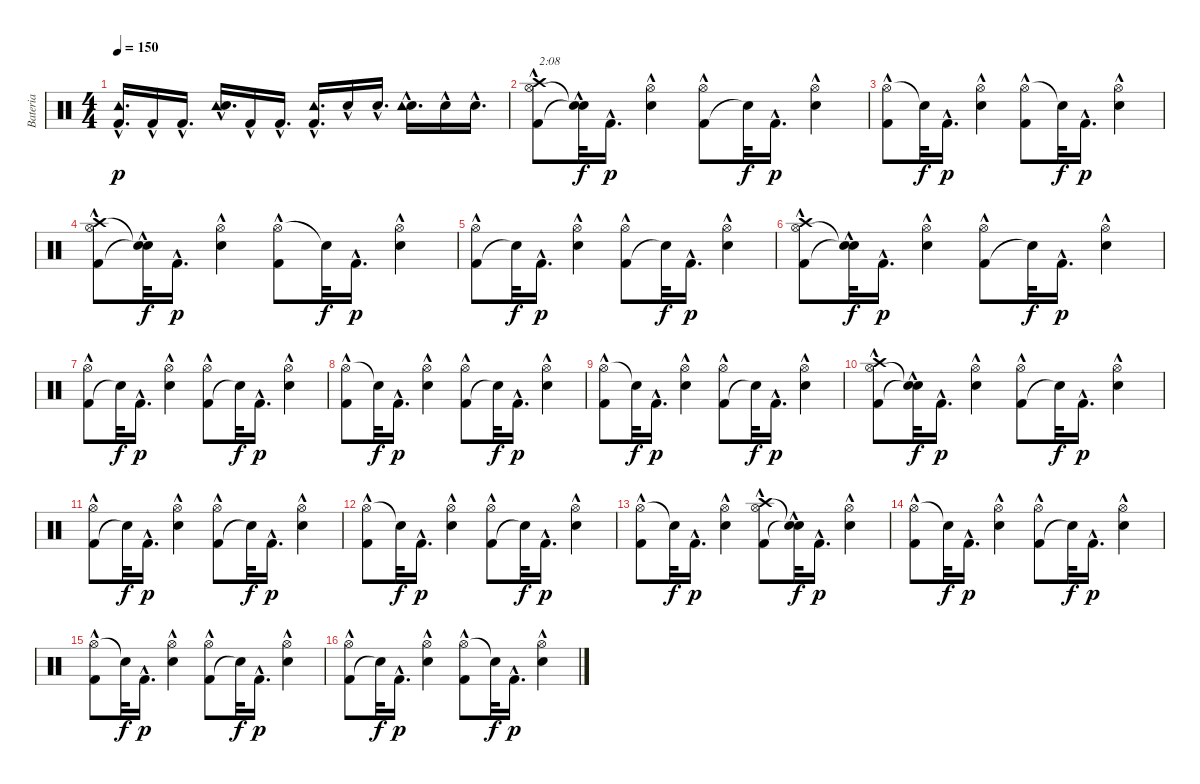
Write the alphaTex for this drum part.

\track ("Bateria" "Bateria") {instrument percussion}
\staff {score}
\articulation defaults
\ts (4 4)
\tempo 150
\clef neutral
\ks c
("Tambourine (hit)" "Kick (hit) 2"{hac}).16{d dy p} "Kick (hit) 2"{hac}.16 "Kick (hit) 2"{hac}.16{d} ("Tambourine (hit)" "Snare (hit) 2"{hac}).16{d} "Kick (hit) 2"{hac}.16 "Kick (hit) 2"{hac}.16{d} ("Tambourine (hit)" "Kick (hit) 2"{hac}).16{d} "Snare (hit) 2"{hac}.16 "Snare (hit) 2"{hac}.16{d} ("Snare (hit) 2"{hac} "Tambourine (hit)").16{d} "Snare (hit) 2"{hac}.16 "Snare (hit) 2"{hac}.16{d} |
("Hi-Hat (open)" "Kick (hit) 2"{hac} "Crash high (hit)").8{txt "2:08"} ("Snare (hit)"{t} "Snare (hit)"{hac t}).32{dy f} "Kick (hit) 2"{hac}.16{d dy p} ("Snare (hit) 2"{hac} "Hi-Hat (open)").4 ("Kick (hit) 2"{hac} "Hi-Hat (open)").8 "Snare (hit)"{t}.32{dy f} "Kick (hit) 2"{hac}.16{d dy p} ("Hi-Hat (open)" "Snare (hit) 2"{hac}).4 |
("Hi-Hat (open)" "Kick (hit) 2"{hac}).8 "Snare (hit)"{t}.32{dy f} "Kick (hit) 2"{hac}.16{d dy p} ("Snare (hit) 2"{hac} "Hi-Hat (open)").4 ("Hi-Hat (open)" "Kick (hit) 2"{hac}).8 "Snare (hit)"{t}.32{dy f} "Kick (hit) 2"{hac}.16{d dy p} ("Hi-Hat (open)" "Snare (hit) 2"{hac}).4 |
("Crash high (hit)" "Kick (hit) 2"{hac} "Hi-Hat (open)").8 ("Snare (hit)"{hac t} "Snare (hit)"{t}).32{dy f} "Kick (hit) 2"{hac}.16{d dy p} ("Snare (hit) 2"{hac} "Hi-Hat (open)").4 ("Hi-Hat (open)" "Kick (hit) 2"{hac}).8 "Snare (hit)"{t}.32{dy f} "Kick (hit) 2"{hac}.16{d dy p} ("Hi-Hat (open)" "Snare (hit) 2"{hac}).4 |
("Kick (hit) 2"{hac} "Hi-Hat (open)").8 "Snare (hit)"{t}.32{dy f} "Kick (hit) 2"{hac}.16{d dy p} ("Snare (hit) 2"{hac} "Hi-Hat (open)").4 ("Kick (hit) 2"{hac} "Hi-Hat (open)").8 "Snare (hit)"{t}.32{dy f} "Kick (hit) 2"{hac}.16{d dy p} ("Snare (hit) 2"{hac} "Hi-Hat (open)").4 |
("Kick (hit) 2"{hac} "Hi-Hat (open)" "Crash high (hit)").8 ("Snare (hit)"{t} "Snare (hit)"{hac t}).32{dy f} "Kick (hit) 2"{hac}.16{d dy p} ("Hi-Hat (open)" "Snare (hit) 2"{hac}).4 ("Kick (hit) 2"{hac} "Hi-Hat (open)").8 "Snare (hit)"{t}.32{dy f} "Kick (hit) 2"{hac}.16{d dy p} ("Snare (hit) 2"{hac} "Hi-Hat (open)").4 |
("Kick (hit) 2"{hac} "Hi-Hat (open)").8 "Snare (hit)"{t}.32{dy f} "Kick (hit) 2"{hac}.16{d dy p} ("Hi-Hat (open)" "Snare (hit) 2"{hac}).4 ("Kick (hit) 2"{hac} "Hi-Hat (open)").8 "Snare (hit)"{t}.32{dy f} "Kick (hit) 2"{hac}.16{d dy p} ("Hi-Hat (open)" "Snare (hit) 2"{hac}).4 |
("Hi-Hat (open)" "Kick (hit) 2"{hac}).8 "Snare (hit)"{t}.32{dy f} "Kick (hit) 2"{hac}.16{d dy p} ("Snare (hit) 2"{hac} "Hi-Hat (open)").4 ("Kick (hit) 2"{hac} "Hi-Hat (open)").8 "Snare (hit)"{t}.32{dy f} "Kick (hit) 2"{hac}.16{d dy p} ("Snare (hit) 2"{hac} "Hi-Hat (open)").4 |
("Hi-Hat (open)" "Kick (hit) 2"{hac}).8 "Snare (hit)"{t}.32{dy f} "Kick (hit) 2"{hac}.16{d dy p} ("Hi-Hat (open)" "Snare (hit) 2"{hac}).4 ("Kick (hit) 2"{hac} "Hi-Hat (open)").8 "Snare (hit)"{t}.32{dy f} "Kick (hit) 2"{hac}.16{d dy p} ("Hi-Hat (open)" "Snare (hit) 2"{hac}).4 |
("Hi-Hat (open)" "Kick (hit) 2"{hac} "Crash high (hit)").8 ("Snare (hit)"{t} "Snare (hit)"{hac t}).32{dy f} "Kick (hit) 2"{hac}.16{d dy p} ("Snare (hit) 2"{hac} "Hi-Hat (open)").4 ("Kick (hit) 2"{hac} "Hi-Hat (open)").8 "Snare (hit)"{t}.32{dy f} "Kick (hit) 2"{hac}.16{d dy p} ("Hi-Hat (open)" "Snare (hit) 2"{hac}).4 |
("Kick (hit) 2"{hac} "Hi-Hat (open)").8 "Snare (hit)"{t}.32{dy f} "Kick (hit) 2"{hac}.16{d dy p} ("Snare (hit) 2"{hac} "Hi-Hat (open)").4 ("Kick (hit) 2"{hac} "Hi-Hat (open)").8 "Snare (hit)"{t}.32{dy f} "Kick (hit) 2"{hac}.16{d dy p} ("Snare (hit) 2"{hac} "Hi-Hat (open)").4 |
("Hi-Hat (open)" "Kick (hit) 2"{hac}).8 "Snare (hit)"{t}.32{dy f} "Kick (hit) 2"{hac}.16{d dy p} ("Snare (hit) 2"{hac} "Hi-Hat (open)").4 ("Kick (hit) 2"{hac} "Hi-Hat (open)").8 "Snare (hit)"{t}.32{dy f} "Kick (hit) 2"{hac}.16{d dy p} ("Snare (hit) 2"{hac} "Hi-Hat (open)").4 |
("Hi-Hat (open)" "Kick (hit) 2"{hac}).8 "Snare (hit)"{t}.32{dy f} "Kick (hit) 2"{hac}.16{d dy p} ("Hi-Hat (open)" "Snare (hit) 2"{hac}).4 ("Crash high (hit)" "Kick (hit) 2"{hac} "Hi-Hat (open)").8 ("Snare (hit)"{hac t} "Snare (hit)"{t}).32{dy f} "Kick (hit) 2"{hac}.16{d dy p} ("Snare (hit) 2"{hac} "Hi-Hat (open)").4 |
("Hi-Hat (open)" "Kick (hit) 2"{hac}).8 "Snare (hit)"{t}.32{dy f} "Kick (hit) 2"{hac}.16{d dy p} ("Hi-Hat (open)" "Snare (hit) 2"{hac}).4 ("Kick (hit) 2"{hac} "Hi-Hat (open)").8 "Snare (hit)"{t}.32{dy f} "Kick (hit) 2"{hac}.16{d dy p} ("Snare (hit) 2"{hac} "Hi-Hat (open)").4 |
("Hi-Hat (open)" "Kick (hit) 2"{hac}).8 "Snare (hit)"{t}.32{dy f} "Kick (hit) 2"{hac}.16{d dy p} ("Hi-Hat (open)" "Snare (hit) 2"{hac}).4 ("Kick (hit) 2"{hac} "Hi-Hat (open)").8 "Snare (hit)"{t}.32{dy f} "Kick (hit) 2"{hac}.16{d dy p} ("Snare (hit) 2"{hac} "Hi-Hat (open)").4 |
("Kick (hit) 2"{hac} "Hi-Hat (open)").8 "Snare (hit)"{t}.32{dy f} "Kick (hit) 2"{hac}.16{d dy p} ("Hi-Hat (open)" "Snare (hit) 2"{hac}).4 ("Hi-Hat (open)" "Kick (hit) 2"{hac}).8 "Snare (hit)"{t}.32{dy f} "Kick (hit) 2"{hac}.16{d dy p} ("Hi-Hat (open)" "Snare (hit) 2"{hac}).4
